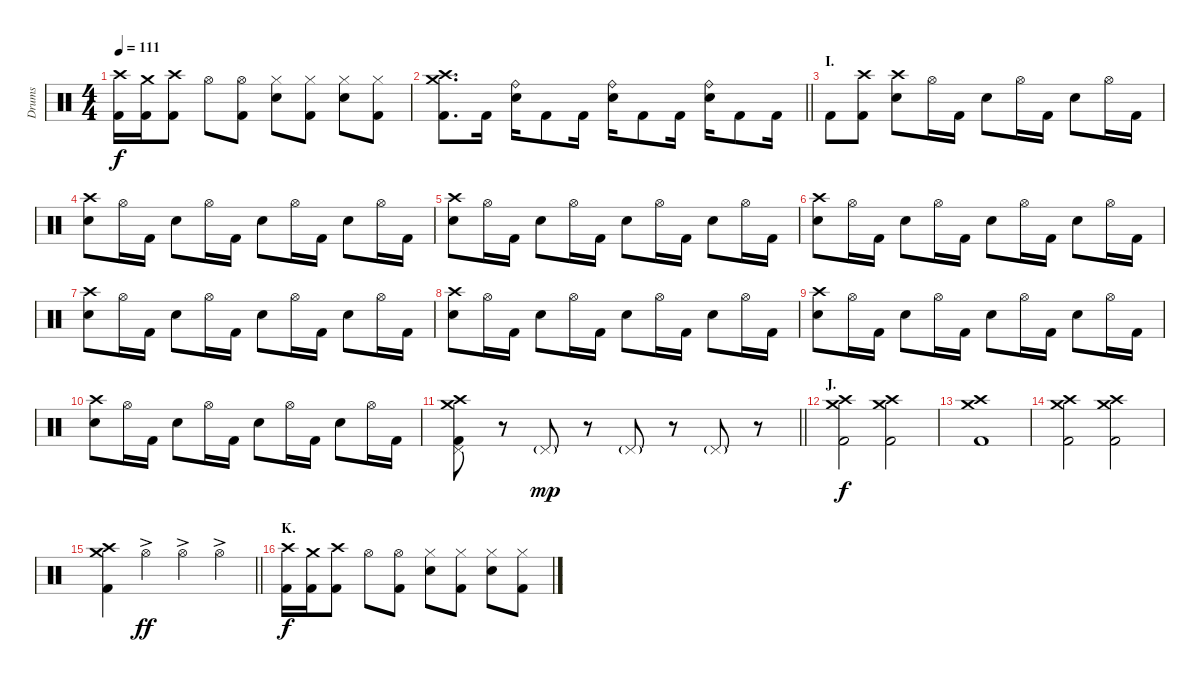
\track ("Drums" "Drums") {instrument percussion}
\staff {score}
\articulation defaults
\ts (4 4)
\tempo 111
\clef neutral
\ks c
("Crash high (hit)" "Kick (hit) 2").16{dy f} ("Crash medium (hit)" "Kick (hit) 2").16 ("Crash high (hit)" "Kick (hit) 2").8 "Hi-Hat (open)".8 ("Hi-Hat (open)" "Kick (hit) 2").8 ("Hi-Hat (closed)" "Electric Snare (hit)").8 ("Hi-Hat (closed)" "Kick (hit) 2").8 ("Hi-Hat (closed)" "Electric Snare (hit)").8 ("Hi-Hat (closed)" "Kick (hit) 2").8 |
\barLineRight lightlight
("Crash medium (hit)" "Crash high (hit)" "Kick (hit) 2").8{d} "Kick (hit) 2".16 ("Ride (bell)" "Electric Snare (hit)").16 "Kick (hit) 2".8 "Kick (hit) 2".16 ("Ride (bell)" "Electric Snare (hit)").16 "Kick (hit) 2".8 "Kick (hit) 2".16 ("Ride (bell)" "Electric Snare (hit)").16 "Kick (hit) 2".8 "Kick (hit) 2".16 |
\section ("" "I.")
"Kick (hit) 2".8 ("Crash high (hit)" "Kick (hit) 2").8 ("Crash high (hit)" "Electric Snare (hit)").8 "Hi-Hat (open)".16 "Kick (hit) 2".16 "Electric Snare (hit)".8 "Hi-Hat (open)".16 "Kick (hit) 2".16 "Electric Snare (hit)".8 "Hi-Hat (open)".16 "Kick (hit) 2".16 |
("Crash high (hit)" "Electric Snare (hit)").8 "Hi-Hat (open)".16 "Kick (hit) 2".16 "Electric Snare (hit)".8 "Hi-Hat (open)".16 "Kick (hit) 2".16 "Electric Snare (hit)".8 "Hi-Hat (open)".16 "Kick (hit) 2".16 "Electric Snare (hit)".8 "Hi-Hat (open)".16 "Kick (hit) 2".16 |
("Crash high (hit)" "Electric Snare (hit)").8 "Hi-Hat (open)".16 "Kick (hit) 2".16 "Electric Snare (hit)".8 "Hi-Hat (open)".16 "Kick (hit) 2".16 "Electric Snare (hit)".8 "Hi-Hat (open)".16 "Kick (hit) 2".16 "Electric Snare (hit)".8 "Hi-Hat (open)".16 "Kick (hit) 2".16 |
("Crash high (hit)" "Electric Snare (hit)").8 "Hi-Hat (open)".16 "Kick (hit) 2".16 "Electric Snare (hit)".8 "Hi-Hat (open)".16 "Kick (hit) 2".16 "Electric Snare (hit)".8 "Hi-Hat (open)".16 "Kick (hit) 2".16 "Electric Snare (hit)".8 "Hi-Hat (open)".16 "Kick (hit) 2".16 |
("Crash high (hit)" "Electric Snare (hit)").8 "Hi-Hat (open)".16 "Kick (hit) 2".16 "Electric Snare (hit)".8 "Hi-Hat (open)".16 "Kick (hit) 2".16 "Electric Snare (hit)".8 "Hi-Hat (open)".16 "Kick (hit) 2".16 "Electric Snare (hit)".8 "Hi-Hat (open)".16 "Kick (hit) 2".16 |
("Crash high (hit)" "Electric Snare (hit)").8 "Hi-Hat (open)".16 "Kick (hit) 2".16 "Electric Snare (hit)".8 "Hi-Hat (open)".16 "Kick (hit) 2".16 "Electric Snare (hit)".8 "Hi-Hat (open)".16 "Kick (hit) 2".16 "Electric Snare (hit)".8 "Hi-Hat (open)".16 "Kick (hit) 2".16 |
("Crash high (hit)" "Electric Snare (hit)").8 "Hi-Hat (open)".16 "Kick (hit) 2".16 "Electric Snare (hit)".8 "Hi-Hat (open)".16 "Kick (hit) 2".16 "Electric Snare (hit)".8 "Hi-Hat (open)".16 "Kick (hit) 2".16 "Electric Snare (hit)".8 "Hi-Hat (open)".16 "Kick (hit) 2".16 |
("Crash high (hit)" "Electric Snare (hit)").8 "Hi-Hat (open)".16 "Kick (hit) 2".16 "Electric Snare (hit)".8 "Hi-Hat (open)".16 "Kick (hit) 2".16 "Electric Snare (hit)".8 "Hi-Hat (open)".16 "Kick (hit) 2".16 "Electric Snare (hit)".8 "Hi-Hat (open)".16 "Kick (hit) 2".16 |
\barLineRight lightlight
("Crash medium (hit)" "Crash high (hit)" "Pedal Hi-Hat (hit)" "Kick (hit) 2").8 r.8 "Pedal Hi-Hat (hit)"{g}.8{dy mp} r.8 "Pedal Hi-Hat (hit)"{g}.8 r.8 "Pedal Hi-Hat (hit)"{g}.8 r.8 |
\section ("" "J.")
("Crash medium (hit)" "Crash high (hit)" "Kick (hit) 2").2{dy f} ("Crash medium (hit)" "Crash high (hit)" "Kick (hit) 2").2 |
("Crash medium (hit)" "Crash high (hit)" "Kick (hit) 2").1 |
("Crash medium (hit)" "Crash high (hit)" "Kick (hit) 2").2 ("Crash medium (hit)" "Crash high (hit)" "Kick (hit) 2").2 |
\barLineRight lightlight
("Crash medium (hit)" "Crash high (hit)" "Kick (hit) 2").4 "Hi-Hat (open)"{ac}.4{dy ff} "Hi-Hat (open)"{ac}.4 "Hi-Hat (open)"{ac}.4 |
\section ("" "K.")
("Crash high (hit)" "Kick (hit) 2").16{dy f} ("Crash medium (hit)" "Kick (hit) 2").16 ("Crash high (hit)" "Kick (hit) 2").8 "Hi-Hat (open)".8 ("Hi-Hat (open)" "Kick (hit) 2").8 ("Hi-Hat (closed)" "Electric Snare (hit)").8 ("Hi-Hat (closed)" "Kick (hit) 2").8 ("Hi-Hat (closed)" "Electric Snare (hit)").8 ("Hi-Hat (closed)" "Kick (hit) 2").8
